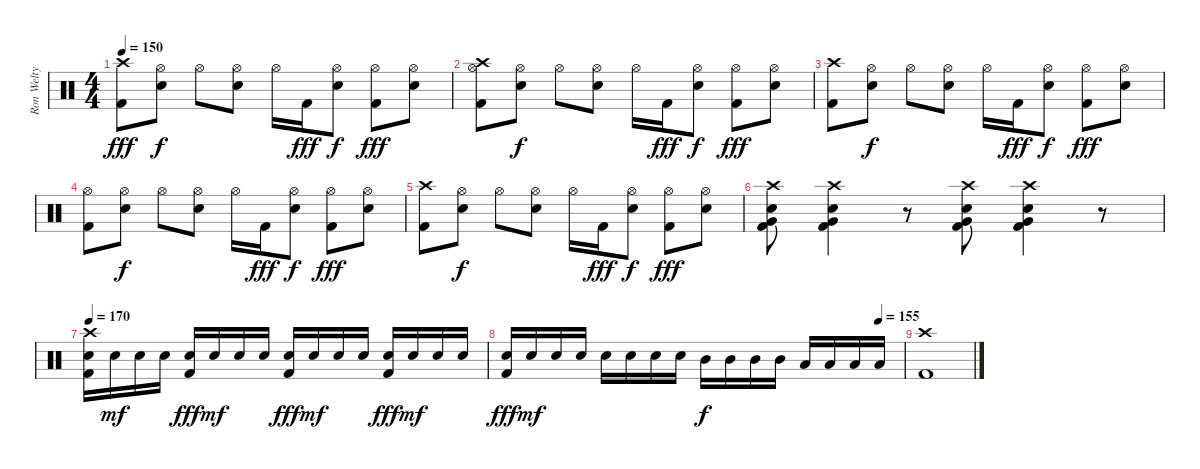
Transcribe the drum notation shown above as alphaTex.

\track ("Ron Welty" "Ron Welty") {instrument percussion}
\staff {score}
\articulation defaults
\ts (4 4)
\tempo 150
\clef neutral
\ks c
("Crash high (hit)" "Kick (hit) 2").8{dy fff} ("Hi-Hat (open)" "Snare (hit) 2").8{dy f} "Hi-Hat (open)".8 ("Hi-Hat (open)" "Snare (hit) 2").8 "Hi-Hat (open)".16 "Kick (hit) 2".16{dy fff} ("Hi-Hat (open)" "Snare (hit) 2").8{dy f} ("Hi-Hat (open)" "Kick (hit) 2").8{dy fff} ("Hi-Hat (open)" "Snare (hit) 2").8 |
("Crash high (hit)" "Hi-Hat (open)" "Kick (hit) 2").8 ("Hi-Hat (open)" "Snare (hit) 2").8{dy f} "Hi-Hat (open)".8 ("Hi-Hat (open)" "Snare (hit) 2").8 "Hi-Hat (open)".16 "Kick (hit) 2".16{dy fff} ("Hi-Hat (open)" "Snare (hit) 2").8{dy f} ("Hi-Hat (open)" "Kick (hit) 2").8{dy fff} ("Hi-Hat (open)" "Snare (hit) 2").8 |
("Crash high (hit)" "Kick (hit) 2").8 ("Hi-Hat (open)" "Snare (hit) 2").8{dy f} "Hi-Hat (open)".8 ("Hi-Hat (open)" "Snare (hit) 2").8 "Hi-Hat (open)".16 "Kick (hit) 2".16{dy fff} ("Hi-Hat (open)" "Snare (hit) 2").8{dy f} ("Hi-Hat (open)" "Kick (hit) 2").8{dy fff} ("Hi-Hat (open)" "Snare (hit) 2").8 |
("Hi-Hat (open)" "Kick (hit) 2").8 ("Hi-Hat (open)" "Snare (hit) 2").8{dy f} "Hi-Hat (open)".8 ("Hi-Hat (open)" "Snare (hit) 2").8 "Hi-Hat (open)".16 "Kick (hit) 2".16{dy fff} ("Hi-Hat (open)" "Snare (hit) 2").8{dy f} ("Hi-Hat (open)" "Kick (hit) 2").8{dy fff} ("Hi-Hat (open)" "Snare (hit) 2").8 |
("Crash high (hit)" "Kick (hit) 2").8 ("Hi-Hat (open)" "Snare (hit) 2").8{dy f} "Hi-Hat (open)".8 ("Hi-Hat (open)" "Snare (hit) 2").8 "Hi-Hat (open)".16 "Kick (hit) 2".16{dy fff} ("Hi-Hat (open)" "Snare (hit) 2").8{dy f} ("Hi-Hat (open)" "Kick (hit) 2").8{dy fff} ("Hi-Hat (open)" "Snare (hit) 2").8 |
("Crash high (hit)" "Very Low Tom (hit)" "Snare (hit) 2" "Kick (hit) 2").8 ("Crash high (hit)" "Very Low Tom (hit)" "Snare (hit) 2" "Kick (hit) 2").4 r.8 ("Crash high (hit)" "Very Low Tom (hit)" "Snare (hit) 2" "Kick (hit) 2").8 ("Crash high (hit)" "Very Low Tom (hit)" "Snare (hit) 2" "Kick (hit) 2").4 r.8 |
\tempo 170
("Crash high (hit)" "Snare (hit) 2" "Kick (hit) 2").16 "Snare (hit) 2".16{dy mf} "Snare (hit) 2".16 "Snare (hit) 2".16 ("Snare (hit) 2" "Kick (hit) 2").16{dy fff} "Snare (hit) 2".16{dy mf} "Snare (hit) 2".16 "Snare (hit) 2".16 ("Snare (hit) 2" "Kick (hit) 2").16{dy fff} "Snare (hit) 2".16{dy mf} "Snare (hit) 2".16 "Snare (hit) 2".16 ("Snare (hit) 2" "Kick (hit) 2").16{dy fff} "Snare (hit) 2".16{dy mf} "Snare (hit) 2".16 "Snare (hit) 2".16 |
\tempo (155 0.9375)
("Snare (hit) 2" "Kick (hit) 2").16{dy fff} "Snare (hit) 2".16{dy mf} "Snare (hit) 2".16 "Snare (hit) 2".16 "Snare (hit) 2".16 "Snare (hit) 2".16 "Snare (hit) 2".16 "Snare (hit) 2".16 "Mid Tom (hit)".16{dy f} "Mid Tom (hit)".16 "Mid Tom (hit)".16 "Mid Tom (hit)".16 "Low Tom (hit)".16 "Low Tom (hit)".16 "Low Tom (hit)".16 "Low Tom (hit)".16 |
("Crash high (hit)" "Kick (hit) 2").1
